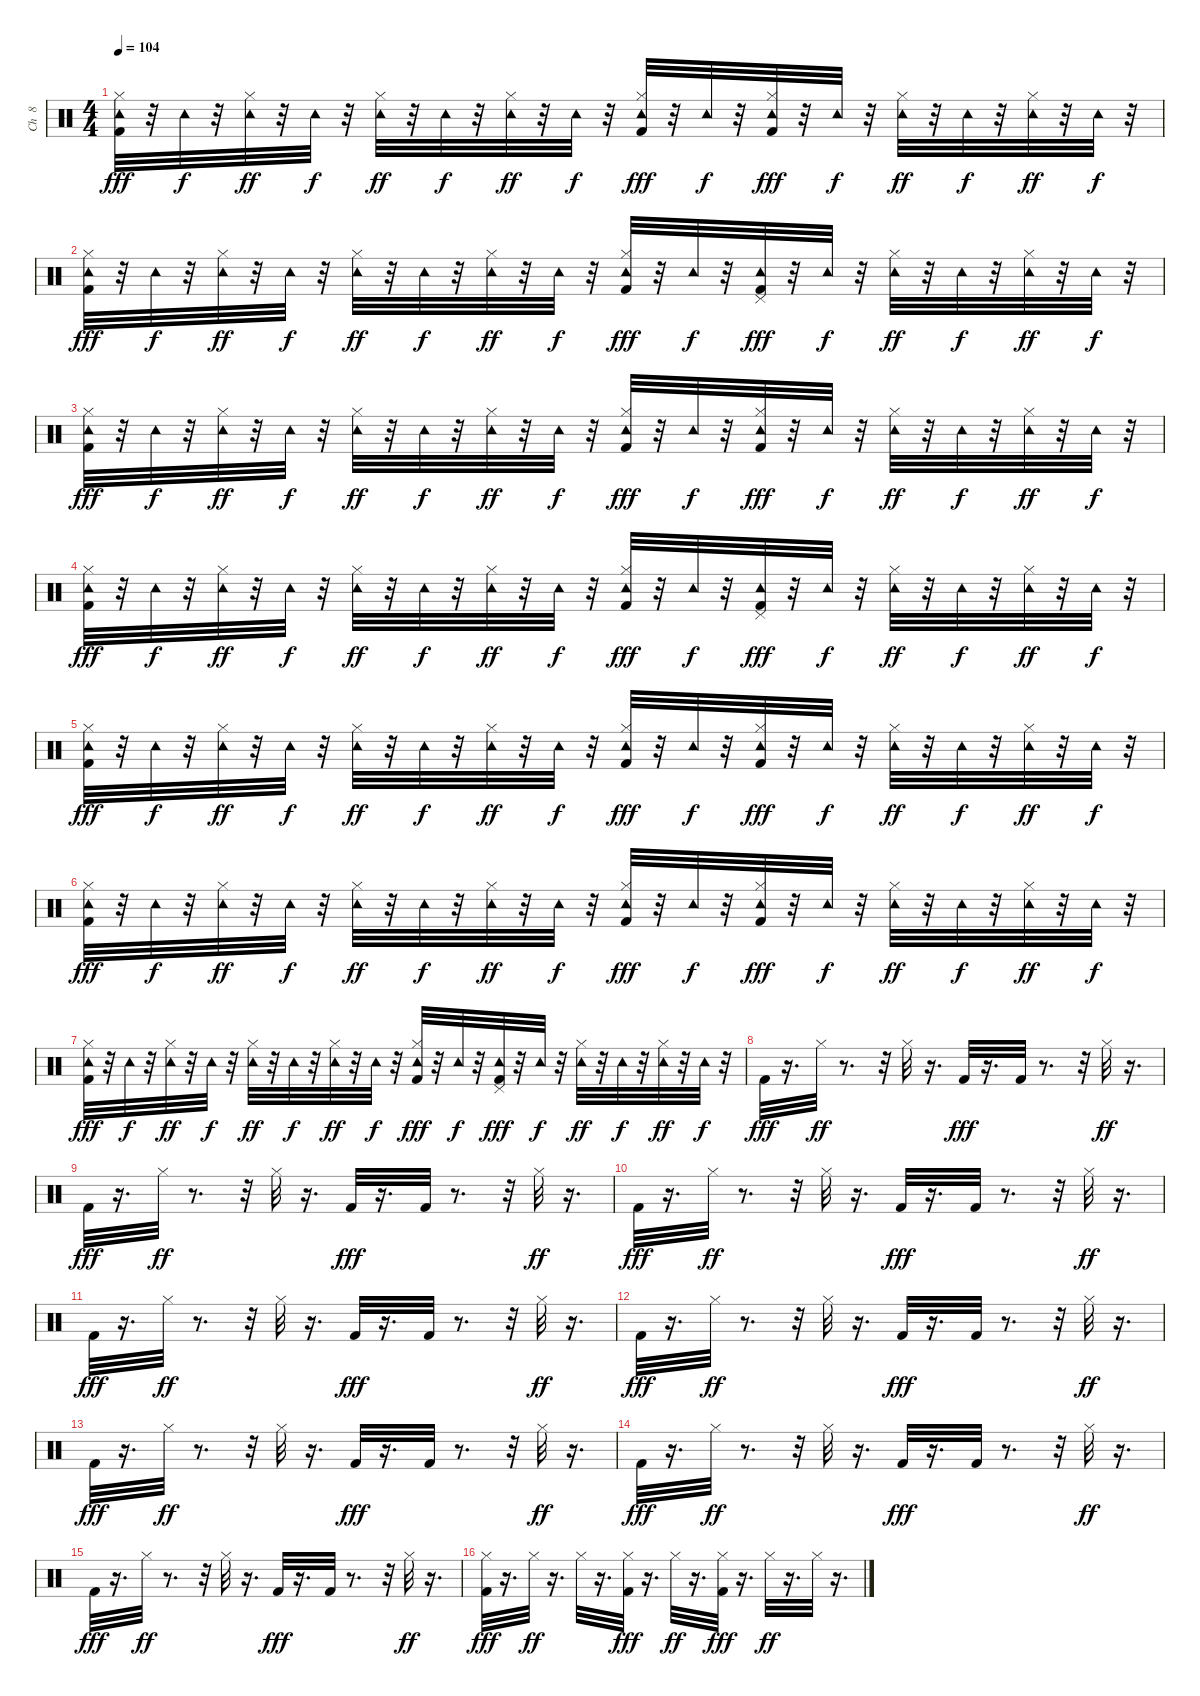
\track ("Ch  8   " "Ch  8   ") {instrument percussion}
\staff {score}
\articulation defaults
\ts (4 4)
\tempo 104
\clef neutral
\ks c
("Tambourine (hit)" "Hi-Hat (closed)" "Kick (hit) 2").32{dy fff} r.32 "Tambourine (hit)".32{dy f} r.32 ("Tambourine (hit)" "Hi-Hat (closed)").32{dy ff} r.32 "Tambourine (hit)".32{dy f} r.32 ("Tambourine (hit)" "Hi-Hat (closed)").32{dy ff} r.32 "Tambourine (hit)".32{dy f} r.32 ("Tambourine (hit)" "Hi-Hat (closed)").32{dy ff} r.32 "Tambourine (hit)".32{dy f} r.32 ("Tambourine (hit)" "Hi-Hat (closed)" "Kick (hit) 2").32{dy fff} r.32 "Tambourine (hit)".32{dy f} r.32 ("Tambourine (hit)" "Hi-Hat (closed)" "Kick (hit) 2").32{dy fff} r.32 "Tambourine (hit)".32{dy f} r.32 ("Tambourine (hit)" "Hi-Hat (closed)").32{dy ff} r.32 "Tambourine (hit)".32{dy f} r.32 ("Tambourine (hit)" "Hi-Hat (closed)").32{dy ff} r.32 "Tambourine (hit)".32{dy f} r.32 |
("Tambourine (hit)" "Hi-Hat (closed)" "Kick (hit) 2").32{dy fff} r.32 "Tambourine (hit)".32{dy f} r.32 ("Tambourine (hit)" "Hi-Hat (closed)").32{dy ff} r.32 "Tambourine (hit)".32{dy f} r.32 ("Tambourine (hit)" "Hi-Hat (closed)").32{dy ff} r.32 "Tambourine (hit)".32{dy f} r.32 ("Tambourine (hit)" "Hi-Hat (closed)").32{dy ff} r.32 "Tambourine (hit)".32{dy f} r.32 ("Tambourine (hit)" "Hi-Hat (closed)" "Kick (hit) 2").32{dy fff} r.32 "Tambourine (hit)".32{dy f} r.32 ("Pedal Hi-Hat (hit)" "Tambourine (hit)" "Kick (hit) 2").32{dy fff} r.32 "Tambourine (hit)".32{dy f} r.32 ("Tambourine (hit)" "Hi-Hat (closed)").32{dy ff} r.32 "Tambourine (hit)".32{dy f} r.32 ("Tambourine (hit)" "Hi-Hat (closed)").32{dy ff} r.32 "Tambourine (hit)".32{dy f} r.32 |
("Tambourine (hit)" "Hi-Hat (closed)" "Kick (hit) 2").32{dy fff} r.32 "Tambourine (hit)".32{dy f} r.32 ("Tambourine (hit)" "Hi-Hat (closed)").32{dy ff} r.32 "Tambourine (hit)".32{dy f} r.32 ("Tambourine (hit)" "Hi-Hat (closed)").32{dy ff} r.32 "Tambourine (hit)".32{dy f} r.32 ("Tambourine (hit)" "Hi-Hat (closed)").32{dy ff} r.32 "Tambourine (hit)".32{dy f} r.32 ("Tambourine (hit)" "Hi-Hat (closed)" "Kick (hit) 2").32{dy fff} r.32 "Tambourine (hit)".32{dy f} r.32 ("Tambourine (hit)" "Hi-Hat (closed)" "Kick (hit) 2").32{dy fff} r.32 "Tambourine (hit)".32{dy f} r.32 ("Tambourine (hit)" "Hi-Hat (closed)").32{dy ff} r.32 "Tambourine (hit)".32{dy f} r.32 ("Tambourine (hit)" "Hi-Hat (closed)").32{dy ff} r.32 "Tambourine (hit)".32{dy f} r.32 |
("Tambourine (hit)" "Hi-Hat (closed)" "Kick (hit) 2").32{dy fff} r.32 "Tambourine (hit)".32{dy f} r.32 ("Tambourine (hit)" "Hi-Hat (closed)").32{dy ff} r.32 "Tambourine (hit)".32{dy f} r.32 ("Tambourine (hit)" "Hi-Hat (closed)").32{dy ff} r.32 "Tambourine (hit)".32{dy f} r.32 ("Tambourine (hit)" "Hi-Hat (closed)").32{dy ff} r.32 "Tambourine (hit)".32{dy f} r.32 ("Tambourine (hit)" "Hi-Hat (closed)" "Kick (hit) 2").32{dy fff} r.32 "Tambourine (hit)".32{dy f} r.32 ("Pedal Hi-Hat (hit)" "Tambourine (hit)" "Kick (hit) 2").32{dy fff} r.32 "Tambourine (hit)".32{dy f} r.32 ("Tambourine (hit)" "Hi-Hat (closed)").32{dy ff} r.32 "Tambourine (hit)".32{dy f} r.32 ("Tambourine (hit)" "Hi-Hat (closed)").32{dy ff} r.32 "Tambourine (hit)".32{dy f} r.32 |
("Tambourine (hit)" "Hi-Hat (closed)" "Kick (hit) 2").32{dy fff} r.32 "Tambourine (hit)".32{dy f} r.32 ("Tambourine (hit)" "Hi-Hat (closed)").32{dy ff} r.32 "Tambourine (hit)".32{dy f} r.32 ("Tambourine (hit)" "Hi-Hat (closed)").32{dy ff} r.32 "Tambourine (hit)".32{dy f} r.32 ("Tambourine (hit)" "Hi-Hat (closed)").32{dy ff} r.32 "Tambourine (hit)".32{dy f} r.32 ("Tambourine (hit)" "Hi-Hat (closed)" "Kick (hit) 2").32{dy fff} r.32 "Tambourine (hit)".32{dy f} r.32 ("Tambourine (hit)" "Hi-Hat (closed)" "Kick (hit) 2").32{dy fff} r.32 "Tambourine (hit)".32{dy f} r.32 ("Tambourine (hit)" "Hi-Hat (closed)").32{dy ff} r.32 "Tambourine (hit)".32{dy f} r.32 ("Tambourine (hit)" "Hi-Hat (closed)").32{dy ff} r.32 "Tambourine (hit)".32{dy f} r.32 |
("Tambourine (hit)" "Hi-Hat (closed)" "Kick (hit) 2").32{dy fff} r.32 "Tambourine (hit)".32{dy f} r.32 ("Tambourine (hit)" "Hi-Hat (closed)").32{dy ff} r.32 "Tambourine (hit)".32{dy f} r.32 ("Tambourine (hit)" "Hi-Hat (closed)").32{dy ff} r.32 "Tambourine (hit)".32{dy f} r.32 ("Tambourine (hit)" "Hi-Hat (closed)").32{dy ff} r.32 "Tambourine (hit)".32{dy f} r.32 ("Tambourine (hit)" "Hi-Hat (closed)" "Kick (hit) 2").32{dy fff} r.32 "Tambourine (hit)".32{dy f} r.32 ("Tambourine (hit)" "Hi-Hat (closed)" "Kick (hit) 2").32{dy fff} r.32 "Tambourine (hit)".32{dy f} r.32 ("Tambourine (hit)" "Hi-Hat (closed)").32{dy ff} r.32 "Tambourine (hit)".32{dy f} r.32 ("Tambourine (hit)" "Hi-Hat (closed)").32{dy ff} r.32 "Tambourine (hit)".32{dy f} r.32 |
("Tambourine (hit)" "Hi-Hat (closed)" "Kick (hit) 2").32{dy fff} r.32 "Tambourine (hit)".32{dy f} r.32 ("Tambourine (hit)" "Hi-Hat (closed)").32{dy ff} r.32 "Tambourine (hit)".32{dy f} r.32 ("Tambourine (hit)" "Hi-Hat (closed)").32{dy ff} r.32 "Tambourine (hit)".32{dy f} r.32 ("Tambourine (hit)" "Hi-Hat (closed)").32{dy ff} r.32 "Tambourine (hit)".32{dy f} r.32 ("Tambourine (hit)" "Hi-Hat (closed)" "Kick (hit) 2").32{dy fff} r.32 "Tambourine (hit)".32{dy f} r.32 ("Pedal Hi-Hat (hit)" "Tambourine (hit)" "Kick (hit) 2").32{dy fff} r.32 "Tambourine (hit)".32{dy f} r.32 ("Tambourine (hit)" "Hi-Hat (closed)").32{dy ff} r.32 "Tambourine (hit)".32{dy f} r.32 ("Tambourine (hit)" "Hi-Hat (closed)").32{dy ff} r.32 "Tambourine (hit)".32{dy f} r.32 |
"Kick (hit) 2".32{dy fff} r.16{d} "Hi-Hat (closed)".32{dy ff} r.8{d} r.32 "Hi-Hat (closed)".32 r.16{d} "Kick (hit) 2".32{dy fff} r.16{d} "Kick (hit) 2".32 r.8{d} r.32 "Hi-Hat (closed)".32{dy ff} r.16{d} |
"Kick (hit) 2".32{dy fff} r.16{d} "Hi-Hat (closed)".32{dy ff} r.8{d} r.32 "Hi-Hat (closed)".32 r.16{d} "Kick (hit) 2".32{dy fff} r.16{d} "Kick (hit) 2".32 r.8{d} r.32 "Hi-Hat (closed)".32{dy ff} r.16{d} |
"Kick (hit) 2".32{dy fff} r.16{d} "Hi-Hat (closed)".32{dy ff} r.8{d} r.32 "Hi-Hat (closed)".32 r.16{d} "Kick (hit) 2".32{dy fff} r.16{d} "Kick (hit) 2".32 r.8{d} r.32 "Hi-Hat (closed)".32{dy ff} r.16{d} |
"Kick (hit) 2".32{dy fff} r.16{d} "Hi-Hat (closed)".32{dy ff} r.8{d} r.32 "Hi-Hat (closed)".32 r.16{d} "Kick (hit) 2".32{dy fff} r.16{d} "Kick (hit) 2".32 r.8{d} r.32 "Hi-Hat (closed)".32{dy ff} r.16{d} |
"Kick (hit) 2".32{dy fff} r.16{d} "Hi-Hat (closed)".32{dy ff} r.8{d} r.32 "Hi-Hat (closed)".32 r.16{d} "Kick (hit) 2".32{dy fff} r.16{d} "Kick (hit) 2".32 r.8{d} r.32 "Hi-Hat (closed)".32{dy ff} r.16{d} |
"Kick (hit) 2".32{dy fff} r.16{d} "Hi-Hat (closed)".32{dy ff} r.8{d} r.32 "Hi-Hat (closed)".32 r.16{d} "Kick (hit) 2".32{dy fff} r.16{d} "Kick (hit) 2".32 r.8{d} r.32 "Hi-Hat (closed)".32{dy ff} r.16{d} |
"Kick (hit) 2".32{dy fff} r.16{d} "Hi-Hat (closed)".32{dy ff} r.8{d} r.32 "Hi-Hat (closed)".32 r.16{d} "Kick (hit) 2".32{dy fff} r.16{d} "Kick (hit) 2".32 r.8{d} r.32 "Hi-Hat (closed)".32{dy ff} r.16{d} |
"Kick (hit) 2".32{dy fff} r.16{d} "Hi-Hat (closed)".32{dy ff} r.8{d} r.32 "Hi-Hat (closed)".32 r.16{d} "Kick (hit) 2".32{dy fff} r.16{d} "Kick (hit) 2".32 r.8{d} r.32 "Hi-Hat (closed)".32{dy ff} r.16{d} |
("Hi-Hat (closed)" "Kick (hit) 2").32{dy fff} r.16{d} "Hi-Hat (closed)".32{dy ff} r.16{d} "Hi-Hat (closed)".32 r.16{d} ("Hi-Hat (closed)" "Kick (hit) 2").32{dy fff} r.16{d} "Hi-Hat (closed)".32{dy ff} r.16{d} ("Hi-Hat (closed)" "Kick (hit) 2").32{dy fff} r.16{d} "Hi-Hat (closed)".32{dy ff} r.16{d} "Hi-Hat (closed)".32 r.16{d}
